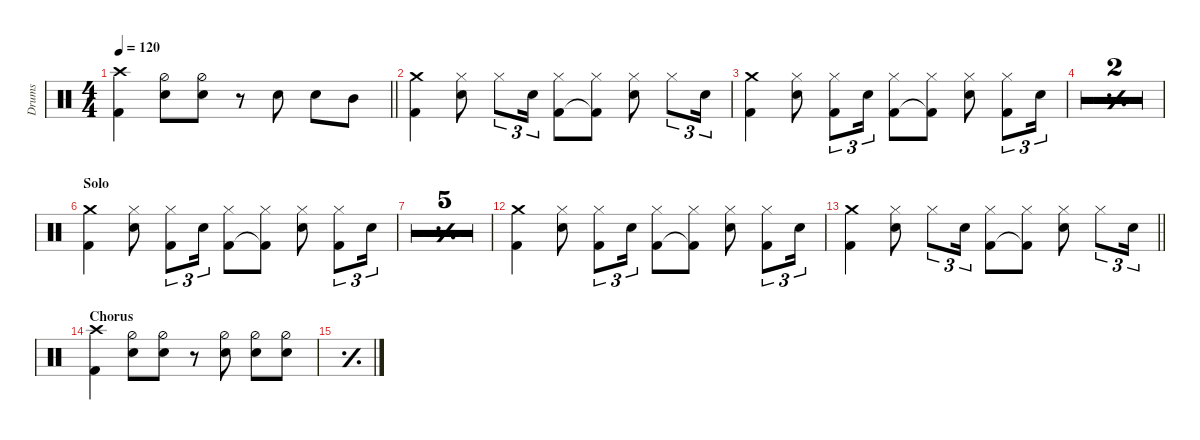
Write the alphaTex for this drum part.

\defaultSystemsLayout 4
\hideDynamics
\bracketExtendMode nobrackets
\otherSystemsTrackNameOrientation horizontal
\track ("Drums" "Drums") {defaultSystemsLayout 8 multiBarRest instrument percussion}
\staff {score}
\articulation defaults
\ts (4 4)
\tempo 120
\clef neutral
\barLineRight lightlight
\ks c
("Crash high (hit)" "Kick (hit) 2").4{dy mf beam Down} ("Snare (hit) 2" "Hi-Hat (half)").8{beam Down} ("Snare (hit) 2" "Hi-Hat (half)").8{beam Down} r.8{beam Down} "Snare (hit) 2".8{beam Down} "Snare (hit) 2".8{beam Down} "Mid Tom (hit)".8{beam Down} |
("Kick (hit) 2" "Crash medium (hit)").4{beam Down} ("Snare (hit) 2" "Hi-Hat (closed)").8{beam Down} "Hi-Hat (closed)".8{tu (3 2) beam Down} "Snare (hit) 2".16{tu (3 2) beam Down} ("Kick (hit) 2" "Hi-Hat (closed)").8{beam Down} ("Kick (hit) 2"{t} "Hi-Hat (closed)").8{beam Down} ("Snare (hit) 2" "Hi-Hat (closed)").8{beam Down} "Hi-Hat (closed)".8{tu (3 2) beam Down} "Snare (hit) 2".16{tu (3 2) beam Down} |
("Kick (hit) 2" "Crash medium (hit)").4{beam Down} ("Snare (hit) 2" "Hi-Hat (closed)").8{beam Down} ("Hi-Hat (closed)" "Kick (hit) 2").8{tu (3 2) beam Down} "Snare (hit) 2".16{tu (3 2) beam Down} ("Kick (hit) 2" "Hi-Hat (closed)").8{beam Down} ("Kick (hit) 2"{t} "Hi-Hat (closed)").8{beam Down} ("Snare (hit) 2" "Hi-Hat (closed)").8{beam Down} ("Hi-Hat (closed)" "Kick (hit) 2").8{tu (3 2) beam Down} "Snare (hit) 2".16{tu (3 2) beam Down} |
\simile simple
|
\barLineRight lightlight
|
\section ("" "Solo")
\simile none
("Kick (hit) 2" "Crash medium (hit)").4{beam Down} ("Snare (hit) 2" "Hi-Hat (closed)").8{beam Down} ("Hi-Hat (closed)" "Kick (hit) 2").8{tu (3 2) beam Down} "Snare (hit) 2".16{tu (3 2) beam Down} ("Kick (hit) 2" "Hi-Hat (closed)").8{beam Down} ("Kick (hit) 2"{t} "Hi-Hat (closed)").8{beam Down} ("Snare (hit) 2" "Hi-Hat (closed)").8{beam Down} ("Hi-Hat (closed)" "Kick (hit) 2").8{tu (3 2) beam Down} "Snare (hit) 2".16{tu (3 2) beam Down} |
\simile simple
|
\simile firstofdouble
|
\simile secondofdouble
|
\simile firstofdouble
|
\simile secondofdouble
|
\simile none
("Kick (hit) 2" "Crash medium (hit)").4{beam Down} ("Snare (hit) 2" "Hi-Hat (closed)").8{beam Down} ("Hi-Hat (closed)" "Kick (hit) 2").8{tu (3 2) beam Down} "Snare (hit) 2".16{tu (3 2) beam Down} ("Kick (hit) 2" "Hi-Hat (closed)").8{beam Down} ("Kick (hit) 2"{t} "Hi-Hat (closed)").8{beam Down} ("Snare (hit) 2" "Hi-Hat (closed)").8{beam Down} ("Hi-Hat (closed)" "Kick (hit) 2").8{tu (3 2) beam Down} "Snare (hit) 2".16{tu (3 2) beam Down} |
\barLineRight lightlight
("Kick (hit) 2" "Crash medium (hit)").4{beam Down} ("Snare (hit) 2" "Hi-Hat (closed)").8{beam Down} "Hi-Hat (closed)".8{tu (3 2) beam Down} "Snare (hit) 2".16{tu (3 2) beam Down} ("Kick (hit) 2" "Hi-Hat (closed)").8{beam Down} ("Kick (hit) 2"{t} "Hi-Hat (closed)").8{beam Down} ("Snare (hit) 2" "Hi-Hat (closed)").8{beam Down} "Hi-Hat (closed)".8{tu (3 2) beam Down} "Snare (hit) 2".16{tu (3 2) beam Down} |
\section ("" "Chorus")
("Crash high (hit)" "Kick (hit) 2").4{beam Down} ("Snare (hit) 2" "Hi-Hat (half)").8{beam Down} ("Snare (hit) 2" "Hi-Hat (half)").8{beam Down} r.8{beam Down} ("Snare (hit) 2" "Hi-Hat (half)").8{beam Down} ("Snare (hit) 2" "Hi-Hat (half)").8{beam Down} ("Snare (hit) 2" "Hi-Hat (half)").8{beam Down} |
\simile simple
